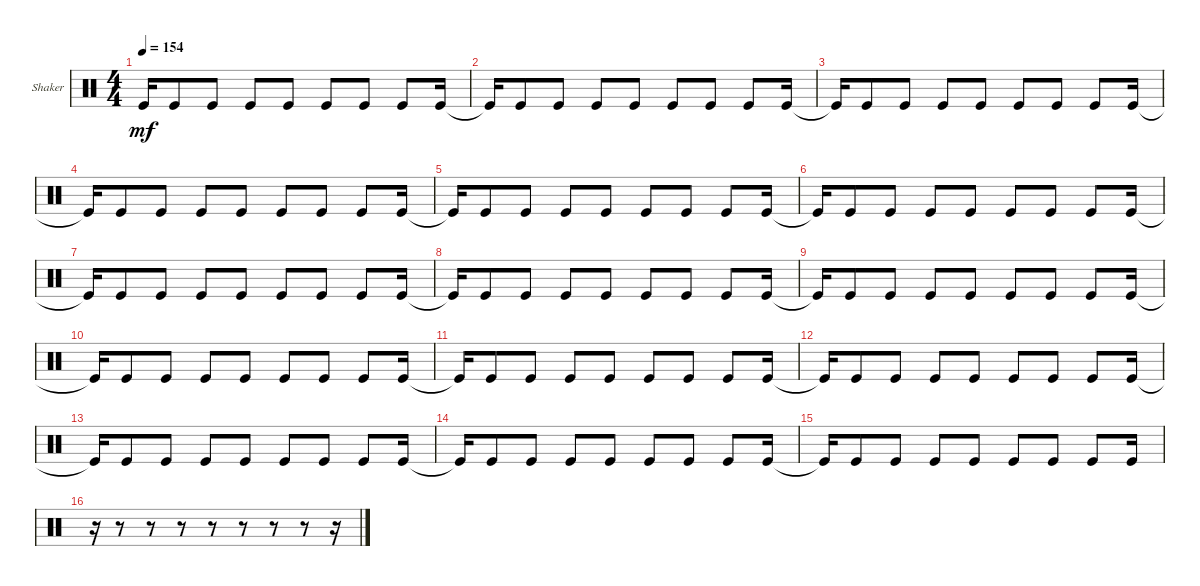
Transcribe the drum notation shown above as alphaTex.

\defaultSystemsLayout 4
\bracketExtendMode groupsimilarinstruments
\firstSystemTrackNameOrientation horizontal
\otherSystemsTrackNameOrientation horizontal
\track ("Shaker" "Shaker") {instrument percussion}
\staff {score}
\articulation defaults
\ts (4 4)
\tempo 154
\clef neutral
\ks c "Kick (hit)"{t}.16{dy mf} "Kick (hit)".8 "Kick (hit)".8 "Kick (hit)".8 "Kick (hit)".8 "Kick (hit)".8 "Kick (hit)".8 "Kick (hit)".8 "Kick (hit)".16
|
"Kick (hit)"{t}.16 "Kick (hit)".8 "Kick (hit)".8 "Kick (hit)".8 "Kick (hit)".8 "Kick (hit)".8 "Kick (hit)".8 "Kick (hit)".8 "Kick (hit)".16 |
"Kick (hit)"{t}.16 "Kick (hit)".8 "Kick (hit)".8 "Kick (hit)".8 "Kick (hit)".8 "Kick (hit)".8 "Kick (hit)".8 "Kick (hit)".8 "Kick (hit)".16 |
"Kick (hit)"{t}.16 "Kick (hit)".8 "Kick (hit)".8 "Kick (hit)".8 "Kick (hit)".8 "Kick (hit)".8 "Kick (hit)".8 "Kick (hit)".8 "Kick (hit)".16 |
"Kick (hit)"{t}.16 "Kick (hit)".8 "Kick (hit)".8 "Kick (hit)".8 "Kick (hit)".8 "Kick (hit)".8 "Kick (hit)".8 "Kick (hit)".8 "Kick (hit)".16 |
"Kick (hit)"{t}.16 "Kick (hit)".8 "Kick (hit)".8 "Kick (hit)".8 "Kick (hit)".8 "Kick (hit)".8 "Kick (hit)".8 "Kick (hit)".8 "Kick (hit)".16 |
"Kick (hit)"{t}.16 "Kick (hit)".8 "Kick (hit)".8 "Kick (hit)".8 "Kick (hit)".8 "Kick (hit)".8 "Kick (hit)".8 "Kick (hit)".8 "Kick (hit)".16 |
"Kick (hit)"{t}.16 "Kick (hit)".8 "Kick (hit)".8 "Kick (hit)".8 "Kick (hit)".8 "Kick (hit)".8 "Kick (hit)".8 "Kick (hit)".8 "Kick (hit)".16 |
"Kick (hit)"{t}.16 "Kick (hit)".8 "Kick (hit)".8 "Kick (hit)".8 "Kick (hit)".8 "Kick (hit)".8 "Kick (hit)".8 "Kick (hit)".8 "Kick (hit)".16 |
"Kick (hit)"{t}.16 "Kick (hit)".8 "Kick (hit)".8 "Kick (hit)".8 "Kick (hit)".8 "Kick (hit)".8 "Kick (hit)".8 "Kick (hit)".8 "Kick (hit)".16 |
"Kick (hit)"{t}.16 "Kick (hit)".8 "Kick (hit)".8 "Kick (hit)".8 "Kick (hit)".8 "Kick (hit)".8 "Kick (hit)".8 "Kick (hit)".8 "Kick (hit)".16 |
"Kick (hit)"{t}.16 "Kick (hit)".8 "Kick (hit)".8 "Kick (hit)".8 "Kick (hit)".8 "Kick (hit)".8 "Kick (hit)".8 "Kick (hit)".8 "Kick (hit)".16 |
"Kick (hit)"{t}.16 "Kick (hit)".8 "Kick (hit)".8 "Kick (hit)".8 "Kick (hit)".8 "Kick (hit)".8 "Kick (hit)".8 "Kick (hit)".8 "Kick (hit)".16 |
"Kick (hit)"{t}.16 "Kick (hit)".8 "Kick (hit)".8 "Kick (hit)".8 "Kick (hit)".8 "Kick (hit)".8 "Kick (hit)".8 "Kick (hit)".8 "Kick (hit)".16 |
"Kick (hit)"{t}.16 "Kick (hit)".8 "Kick (hit)".8 "Kick (hit)".8 "Kick (hit)".8 "Kick (hit)".8 "Kick (hit)".8 "Kick (hit)".8 "Kick (hit)".16 |
r.16 r.8 r.8 r.8 r.8 r.8 r.8 r.8 r.16
